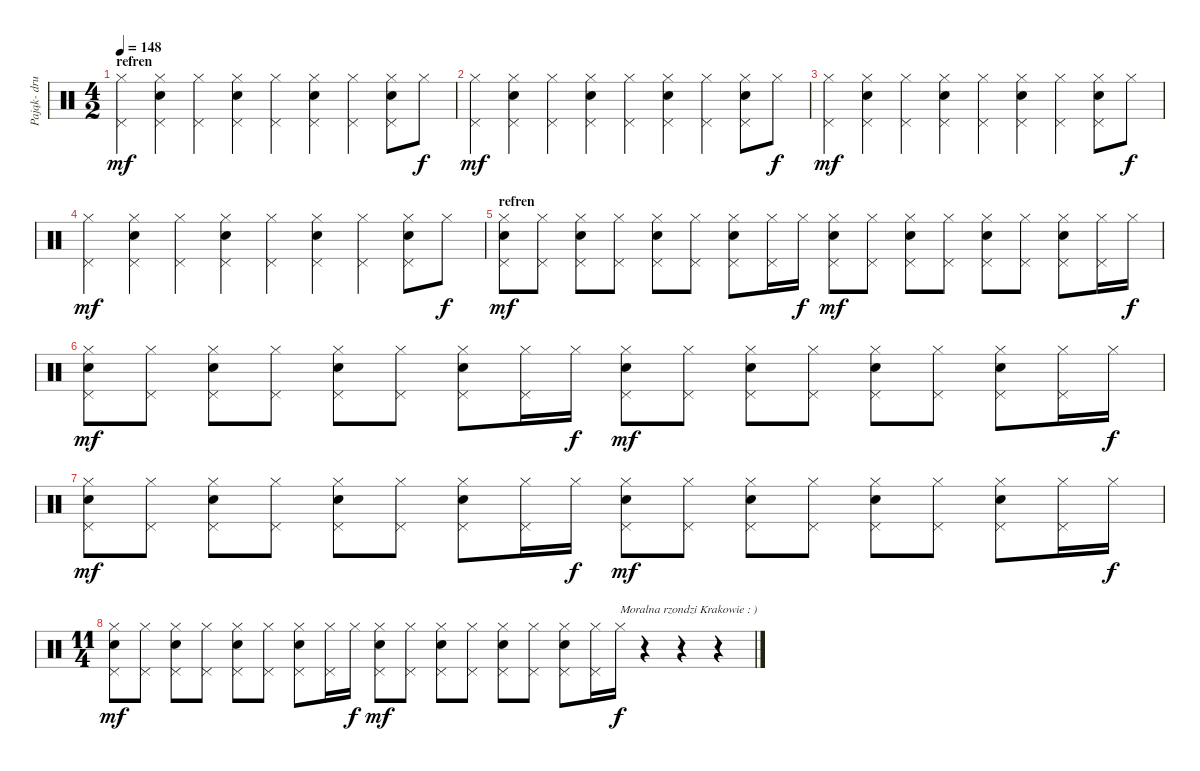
\track ("Pająk- drum" "Pająk- dru") {instrument percussion}
\staff {score}
\articulation defaults
\ts (4 2)
\section ("" "refren")
\tempo 148
\clef neutral
\ks c
("Hi-Hat (closed)" "Pedal Hi-Hat (hit)").4{dy mf} ("Hi-Hat (closed)" "Snare (hit) 2" "Pedal Hi-Hat (hit)").4 ("Hi-Hat (closed)" "Pedal Hi-Hat (hit)").4 ("Hi-Hat (closed)" "Snare (hit) 2" "Pedal Hi-Hat (hit)").4 ("Hi-Hat (closed)" "Pedal Hi-Hat (hit)").4 ("Hi-Hat (closed)" "Snare (hit) 2" "Pedal Hi-Hat (hit)").4 ("Hi-Hat (closed)" "Pedal Hi-Hat (hit)").4 ("Hi-Hat (closed)" "Snare (hit) 2" "Pedal Hi-Hat (hit)").8 "Hi-Hat (closed)".8{dy f} |
("Hi-Hat (closed)" "Pedal Hi-Hat (hit)").4{dy mf} ("Hi-Hat (closed)" "Snare (hit) 2" "Pedal Hi-Hat (hit)").4 ("Hi-Hat (closed)" "Pedal Hi-Hat (hit)").4 ("Hi-Hat (closed)" "Snare (hit) 2" "Pedal Hi-Hat (hit)").4 ("Hi-Hat (closed)" "Pedal Hi-Hat (hit)").4 ("Hi-Hat (closed)" "Snare (hit) 2" "Pedal Hi-Hat (hit)").4 ("Hi-Hat (closed)" "Pedal Hi-Hat (hit)").4 ("Hi-Hat (closed)" "Snare (hit) 2" "Pedal Hi-Hat (hit)").8 "Hi-Hat (closed)".8{dy f} |
("Hi-Hat (closed)" "Pedal Hi-Hat (hit)").4{dy mf} ("Hi-Hat (closed)" "Snare (hit) 2" "Pedal Hi-Hat (hit)").4 ("Hi-Hat (closed)" "Pedal Hi-Hat (hit)").4 ("Hi-Hat (closed)" "Snare (hit) 2" "Pedal Hi-Hat (hit)").4 ("Hi-Hat (closed)" "Pedal Hi-Hat (hit)").4 ("Hi-Hat (closed)" "Snare (hit) 2" "Pedal Hi-Hat (hit)").4 ("Hi-Hat (closed)" "Pedal Hi-Hat (hit)").4 ("Hi-Hat (closed)" "Snare (hit) 2" "Pedal Hi-Hat (hit)").8 "Hi-Hat (closed)".8{dy f} |
("Hi-Hat (closed)" "Pedal Hi-Hat (hit)").4{dy mf} ("Hi-Hat (closed)" "Snare (hit) 2" "Pedal Hi-Hat (hit)").4 ("Hi-Hat (closed)" "Pedal Hi-Hat (hit)").4 ("Hi-Hat (closed)" "Snare (hit) 2" "Pedal Hi-Hat (hit)").4 ("Hi-Hat (closed)" "Pedal Hi-Hat (hit)").4 ("Hi-Hat (closed)" "Snare (hit) 2" "Pedal Hi-Hat (hit)").4 ("Hi-Hat (closed)" "Pedal Hi-Hat (hit)").4 ("Hi-Hat (closed)" "Snare (hit) 2" "Pedal Hi-Hat (hit)").8 "Hi-Hat (closed)".8{dy f} |
\section ("" "refren")
("Hi-Hat (closed)" "Snare (hit) 2" "Pedal Hi-Hat (hit)").8{dy mf} ("Hi-Hat (closed)" "Pedal Hi-Hat (hit)").8 ("Hi-Hat (closed)" "Snare (hit) 2" "Pedal Hi-Hat (hit)").8 ("Hi-Hat (closed)" "Pedal Hi-Hat (hit)").8 ("Hi-Hat (closed)" "Snare (hit) 2" "Pedal Hi-Hat (hit)").8 ("Hi-Hat (closed)" "Pedal Hi-Hat (hit)").8 ("Hi-Hat (closed)" "Snare (hit) 2" "Pedal Hi-Hat (hit)").8 ("Hi-Hat (closed)" "Pedal Hi-Hat (hit)").16 "Hi-Hat (closed)".16{dy f} ("Hi-Hat (closed)" "Snare (hit) 2" "Pedal Hi-Hat (hit)").8{dy mf} ("Hi-Hat (closed)" "Pedal Hi-Hat (hit)").8 ("Hi-Hat (closed)" "Snare (hit) 2" "Pedal Hi-Hat (hit)").8 ("Hi-Hat (closed)" "Pedal Hi-Hat (hit)").8 ("Hi-Hat (closed)" "Snare (hit) 2" "Pedal Hi-Hat (hit)").8 ("Hi-Hat (closed)" "Pedal Hi-Hat (hit)").8 ("Hi-Hat (closed)" "Snare (hit) 2" "Pedal Hi-Hat (hit)").8 ("Hi-Hat (closed)" "Pedal Hi-Hat (hit)").16 "Hi-Hat (closed)".16{dy f} |
("Hi-Hat (closed)" "Snare (hit) 2" "Pedal Hi-Hat (hit)").8{dy mf} ("Hi-Hat (closed)" "Pedal Hi-Hat (hit)").8 ("Hi-Hat (closed)" "Snare (hit) 2" "Pedal Hi-Hat (hit)").8 ("Hi-Hat (closed)" "Pedal Hi-Hat (hit)").8 ("Hi-Hat (closed)" "Snare (hit) 2" "Pedal Hi-Hat (hit)").8 ("Hi-Hat (closed)" "Pedal Hi-Hat (hit)").8 ("Hi-Hat (closed)" "Snare (hit) 2" "Pedal Hi-Hat (hit)").8 ("Hi-Hat (closed)" "Pedal Hi-Hat (hit)").16 "Hi-Hat (closed)".16{dy f} ("Hi-Hat (closed)" "Snare (hit) 2" "Pedal Hi-Hat (hit)").8{dy mf} ("Hi-Hat (closed)" "Pedal Hi-Hat (hit)").8 ("Hi-Hat (closed)" "Snare (hit) 2" "Pedal Hi-Hat (hit)").8 ("Hi-Hat (closed)" "Pedal Hi-Hat (hit)").8 ("Hi-Hat (closed)" "Snare (hit) 2" "Pedal Hi-Hat (hit)").8 ("Hi-Hat (closed)" "Pedal Hi-Hat (hit)").8 ("Hi-Hat (closed)" "Snare (hit) 2" "Pedal Hi-Hat (hit)").8 ("Hi-Hat (closed)" "Pedal Hi-Hat (hit)").16 "Hi-Hat (closed)".16{dy f} |
("Hi-Hat (closed)" "Snare (hit) 2" "Pedal Hi-Hat (hit)").8{dy mf} ("Hi-Hat (closed)" "Pedal Hi-Hat (hit)").8 ("Hi-Hat (closed)" "Snare (hit) 2" "Pedal Hi-Hat (hit)").8 ("Hi-Hat (closed)" "Pedal Hi-Hat (hit)").8 ("Hi-Hat (closed)" "Snare (hit) 2" "Pedal Hi-Hat (hit)").8 ("Hi-Hat (closed)" "Pedal Hi-Hat (hit)").8 ("Hi-Hat (closed)" "Snare (hit) 2" "Pedal Hi-Hat (hit)").8 ("Hi-Hat (closed)" "Pedal Hi-Hat (hit)").16 "Hi-Hat (closed)".16{dy f} ("Hi-Hat (closed)" "Snare (hit) 2" "Pedal Hi-Hat (hit)").8{dy mf} ("Hi-Hat (closed)" "Pedal Hi-Hat (hit)").8 ("Hi-Hat (closed)" "Snare (hit) 2" "Pedal Hi-Hat (hit)").8 ("Hi-Hat (closed)" "Pedal Hi-Hat (hit)").8 ("Hi-Hat (closed)" "Snare (hit) 2" "Pedal Hi-Hat (hit)").8 ("Hi-Hat (closed)" "Pedal Hi-Hat (hit)").8 ("Hi-Hat (closed)" "Snare (hit) 2" "Pedal Hi-Hat (hit)").8 ("Hi-Hat (closed)" "Pedal Hi-Hat (hit)").16 "Hi-Hat (closed)".16{dy f} |
\ts (11 4)
("Hi-Hat (closed)" "Snare (hit) 2" "Pedal Hi-Hat (hit)").8{dy mf} ("Hi-Hat (closed)" "Pedal Hi-Hat (hit)").8 ("Hi-Hat (closed)" "Snare (hit) 2" "Pedal Hi-Hat (hit)").8 ("Hi-Hat (closed)" "Pedal Hi-Hat (hit)").8 ("Hi-Hat (closed)" "Snare (hit) 2" "Pedal Hi-Hat (hit)").8 ("Hi-Hat (closed)" "Pedal Hi-Hat (hit)").8 ("Hi-Hat (closed)" "Snare (hit) 2" "Pedal Hi-Hat (hit)").8 ("Hi-Hat (closed)" "Pedal Hi-Hat (hit)").16 "Hi-Hat (closed)".16{dy f} ("Hi-Hat (closed)" "Snare (hit) 2" "Pedal Hi-Hat (hit)").8{dy mf} ("Hi-Hat (closed)" "Pedal Hi-Hat (hit)").8 ("Hi-Hat (closed)" "Snare (hit) 2" "Pedal Hi-Hat (hit)").8 ("Hi-Hat (closed)" "Pedal Hi-Hat (hit)").8 ("Hi-Hat (closed)" "Snare (hit) 2" "Pedal Hi-Hat (hit)").8 ("Hi-Hat (closed)" "Pedal Hi-Hat (hit)").8 ("Hi-Hat (closed)" "Snare (hit) 2" "Pedal Hi-Hat (hit)").8 ("Hi-Hat (closed)" "Pedal Hi-Hat (hit)").16 "Hi-Hat (closed)".16{txt "Moralna rzondzi Krakowie : )" dy f} r.4 r.4 r.4
